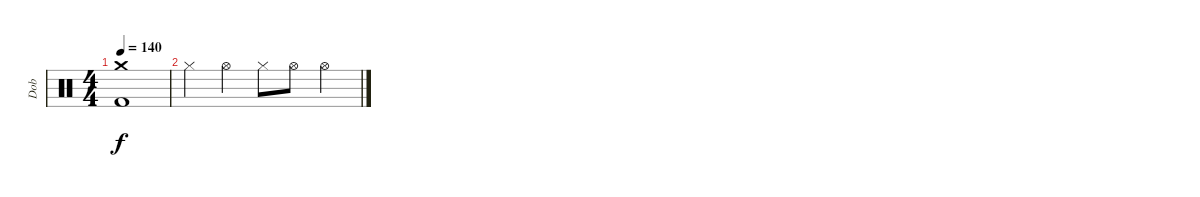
\track ("Dob" "Dob") {instrument percussion}
\staff {score}
\articulation defaults
\ts (4 4)
\tempo 140
\clef neutral
\ks c
("Crash medium (hit)" "Kick (hit) 2").1{dy f} |
"Hi-Hat (closed)".4 "Hi-Hat (open)".4 "Hi-Hat (closed)".8 "Hi-Hat (open)".8 "Hi-Hat (open)".4
